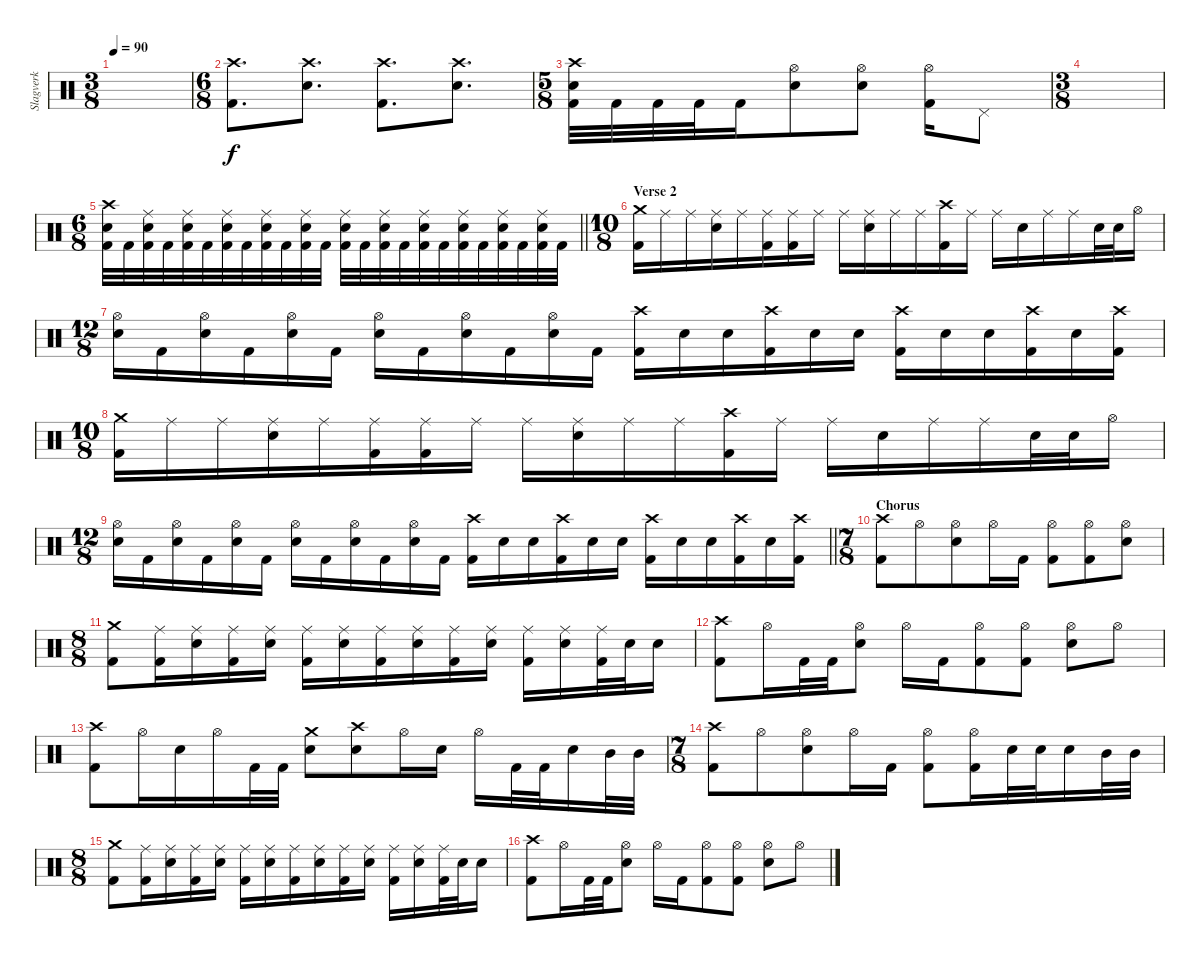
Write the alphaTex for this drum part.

\track ("Slagverk" "Slagverk") {instrument percussion}
\staff {score}
\articulation defaults
\ts (3 8)
\tempo 90
\clef neutral
\ks c
|
\ts (6 8)
("Kick (hit) 2" "Crash high (hit)").8{d} ("Snare (hit) 2" "Crash high (hit)").8{d} ("Crash high (hit)" "Kick (hit) 2").8{d} ("Snare (hit) 2" "Crash high (hit)").8{d} |
\ts (5 8)
("Kick (hit) 2" "Crash high (hit)" "Snare (hit) 2").32 "Kick (hit) 2".32 "Kick (hit) 2".32 "Kick (hit) 2".32 "Kick (hit) 2".16 ("Snare (hit) 2" "Hi-Hat (open)").8 ("Snare (hit) 2" "Hi-Hat (open)").8 ("Kick (hit) 2" "Hi-Hat (open)").16 "Pedal Hi-Hat (hit)".8 |
\ts (3 8)
|
\ts (6 8)
\barLineRight lightlight
("Kick (hit) 2" "Snare (hit) 2" "Crash high (hit)").32 "Kick (hit) 2".32 ("Snare (hit) 2" "Kick (hit) 2" "Ride (middle)").32 "Kick (hit) 2".32 ("Kick (hit) 2" "Snare (hit) 2" "Ride (middle)").32 "Kick (hit) 2".32 ("Kick (hit) 2" "Snare (hit) 2" "Ride (middle)").32 "Kick (hit) 2".32 ("Kick (hit) 2" "Snare (hit) 2" "Ride (middle)").32 "Kick (hit) 2".32 ("Kick (hit) 2" "Snare (hit) 2" "Ride (middle)").32 "Kick (hit) 2".32 ("Kick (hit) 2" "Snare (hit) 2" "Ride (middle)").32 "Kick (hit) 2".32 ("Kick (hit) 2" "Snare (hit) 2" "Ride (middle)").32 "Kick (hit) 2".32 ("Kick (hit) 2" "Snare (hit) 2" "Ride (middle)").32 "Kick (hit) 2".32 ("Kick (hit) 2" "Snare (hit) 2" "Ride (middle)").32 "Kick (hit) 2".32 ("Kick (hit) 2" "Snare (hit) 2" "Ride (middle)").32 "Kick (hit) 2".32 ("Kick (hit) 2" "Snare (hit) 2" "Ride (middle)").32 "Kick (hit) 2".32 |
\ts (10 8)
\section ("" "Verse 2")
("Kick (hit) 2" "Crash medium (hit)").16 "Ride (middle)".16 "Ride (middle)".16 ("Ride (middle)" "Snare (hit) 2").16 "Ride (middle)".16 ("Ride (middle)" "Kick (hit) 2").16 ("Kick (hit) 2" "Ride (middle)").16 "Ride (middle)".16 "Ride (middle)".16 ("Ride (middle)" "Snare (hit) 2").16 "Ride (middle)".16 "Ride (middle)".16 ("Crash high (hit)" "Kick (hit) 2").16 "Ride (middle)".16 "Ride (middle)".16 "Snare (hit) 2".16 "Ride (middle)".16 "Ride (middle)".16 "Snare (hit) 2".32 "Snare (hit) 2".32 "Hi-Hat (open)".16 |
\ts (12 8)
("Hi-Hat (open)" "Snare (hit) 2").16 "Kick (hit) 2".16 ("Snare (hit) 2" "Hi-Hat (open)").16 "Kick (hit) 2".16 ("Snare (hit) 2" "Hi-Hat (open)").16 "Kick (hit) 2".16 ("Snare (hit) 2" "Hi-Hat (open)").16 "Kick (hit) 2".16 ("Snare (hit) 2" "Hi-Hat (open)").16 "Kick (hit) 2".16 ("Snare (hit) 2" "Hi-Hat (open)").16 "Kick (hit) 2".16 ("Crash high (hit)" "Kick (hit) 2").16 "Snare (hit) 2".16 "Snare (hit) 2".16 ("Crash high (hit)" "Kick (hit) 2").16 "Snare (hit) 2".16 "Snare (hit) 2".16 ("Crash high (hit)" "Kick (hit) 2").16 "Snare (hit) 2".16 "Snare (hit) 2".16 ("Kick (hit) 2" "Crash high (hit)").16 "Snare (hit) 2".16 ("Crash high (hit)" "Kick (hit) 2").16 |
\ts (10 8)
("Kick (hit) 2" "Crash medium (hit)").16 "Ride (middle)".16 "Ride (middle)".16 ("Ride (middle)" "Snare (hit) 2").16 "Ride (middle)".16 ("Ride (middle)" "Kick (hit) 2").16 ("Kick (hit) 2" "Ride (middle)").16 "Ride (middle)".16 "Ride (middle)".16 ("Ride (middle)" "Snare (hit) 2").16 "Ride (middle)".16 "Ride (middle)".16 ("Crash high (hit)" "Kick (hit) 2").16 "Ride (middle)".16 "Ride (middle)".16 "Snare (hit) 2".16 "Ride (middle)".16 "Ride (middle)".16 "Snare (hit) 2".32 "Snare (hit) 2".32 "Hi-Hat (open)".16 |
\ts (12 8)
\barLineRight lightlight
("Hi-Hat (open)" "Snare (hit) 2").16 "Kick (hit) 2".16 ("Snare (hit) 2" "Hi-Hat (open)").16 "Kick (hit) 2".16 ("Snare (hit) 2" "Hi-Hat (open)").16 "Kick (hit) 2".16 ("Snare (hit) 2" "Hi-Hat (open)").16 "Kick (hit) 2".16 ("Snare (hit) 2" "Hi-Hat (open)").16 "Kick (hit) 2".16 ("Snare (hit) 2" "Hi-Hat (open)").16 "Kick (hit) 2".16 ("Crash high (hit)" "Kick (hit) 2").16 "Snare (hit) 2".16 "Snare (hit) 2".16 ("Crash high (hit)" "Kick (hit) 2").16 "Snare (hit) 2".16 "Snare (hit) 2".16 ("Crash high (hit)" "Kick (hit) 2").16 "Snare (hit) 2".16 "Snare (hit) 2".16 ("Kick (hit) 2" "Crash high (hit)").16 "Snare (hit) 2".16 ("Crash high (hit)" "Kick (hit) 2").16 |
\ts (7 8)
\section ("" "Chorus")
("Crash high (hit)" "Kick (hit) 2").8 "Hi-Hat (open)".8 ("Hi-Hat (open)" "Snare (hit) 2").8 "Hi-Hat (open)".16 "Kick (hit) 2".16 ("Kick (hit) 2" "Hi-Hat (open)").8 ("Kick (hit) 2" "Hi-Hat (open)").8 ("Hi-Hat (open)" "Snare (hit) 2").8 |
\ts (8 8)
("Crash medium (hit)" "Kick (hit) 2").8 ("Ride (middle)" "Kick (hit) 2").16 ("Snare (hit) 2" "Ride (middle)").16 ("Ride (middle)" "Kick (hit) 2").16 ("Snare (hit) 2" "Ride (middle)").16 ("Ride (middle)" "Kick (hit) 2").16 ("Snare (hit) 2" "Ride (middle)").16 ("Ride (middle)" "Kick (hit) 2").16 ("Snare (hit) 2" "Ride (middle)").16 ("Ride (middle)" "Kick (hit) 2").16 ("Snare (hit) 2" "Ride (middle)").16 ("Ride (middle)" "Kick (hit) 2").16 ("Snare (hit) 2" "Ride (middle)").16 ("Ride (middle)" "Kick (hit) 2").32 "Snare (hit) 2".32 "Snare (hit) 2".16 |
("Crash high (hit)" "Kick (hit) 2").8 "Hi-Hat (open)".16 "Kick (hit) 2".32 "Kick (hit) 2".32 ("Hi-Hat (open)" "Snare (hit) 2").8 "Hi-Hat (open)".16 "Kick (hit) 2".16 ("Kick (hit) 2" "Hi-Hat (open)").8 ("Kick (hit) 2" "Hi-Hat (open)").8 ("Hi-Hat (open)" "Snare (hit) 2").8 "Hi-Hat (open)".8 |
("Kick (hit) 2" "Crash high (hit)").8 "Hi-Hat (open)".16 "Snare (hit) 2".16 "Hi-Hat (open)".16 "Kick (hit) 2".32 "Kick (hit) 2".32 ("Crash medium (hit)" "Snare (hit) 2").8 ("Crash high (hit)" "Snare (hit) 2").8 "Hi-Hat (open)".16 "Snare (hit) 2".16 "Hi-Hat (open)".16 "Kick (hit) 2".32 "Kick (hit) 2".32 "Snare (hit) 2".16 "Mid Tom (hit)".32 "Mid Tom (hit)".32 |
\ts (7 8)
("Crash high (hit)" "Kick (hit) 2").8 "Hi-Hat (open)".8 ("Hi-Hat (open)" "Snare (hit) 2").8 "Hi-Hat (open)".16 "Kick (hit) 2".16 ("Kick (hit) 2" "Hi-Hat (open)").8 ("Kick (hit) 2" "Hi-Hat (open)").16 "Snare (hit) 2".32 "Snare (hit) 2".32 "Snare (hit) 2".16 "Mid Tom (hit)".32 "Mid Tom (hit)".32 |
\ts (8 8)
("Crash medium (hit)" "Kick (hit) 2").8 ("Ride (middle)" "Kick (hit) 2").16 ("Snare (hit) 2" "Ride (middle)").16 ("Ride (middle)" "Kick (hit) 2").16 ("Snare (hit) 2" "Ride (middle)").16 ("Ride (middle)" "Kick (hit) 2").16 ("Snare (hit) 2" "Ride (middle)").16 ("Ride (middle)" "Kick (hit) 2").16 ("Snare (hit) 2" "Ride (middle)").16 ("Ride (middle)" "Kick (hit) 2").16 ("Snare (hit) 2" "Ride (middle)").16 ("Ride (middle)" "Kick (hit) 2").16 ("Snare (hit) 2" "Ride (middle)").16 ("Ride (middle)" "Kick (hit) 2").32 "Snare (hit) 2".32 "Snare (hit) 2".16 |
("Crash high (hit)" "Kick (hit) 2").8 "Hi-Hat (open)".16 "Kick (hit) 2".32 "Kick (hit) 2".32 ("Hi-Hat (open)" "Snare (hit) 2").8 "Hi-Hat (open)".16 "Kick (hit) 2".16 ("Kick (hit) 2" "Hi-Hat (open)").8 ("Kick (hit) 2" "Hi-Hat (open)").8 ("Hi-Hat (open)" "Snare (hit) 2").8 "Hi-Hat (open)".8
